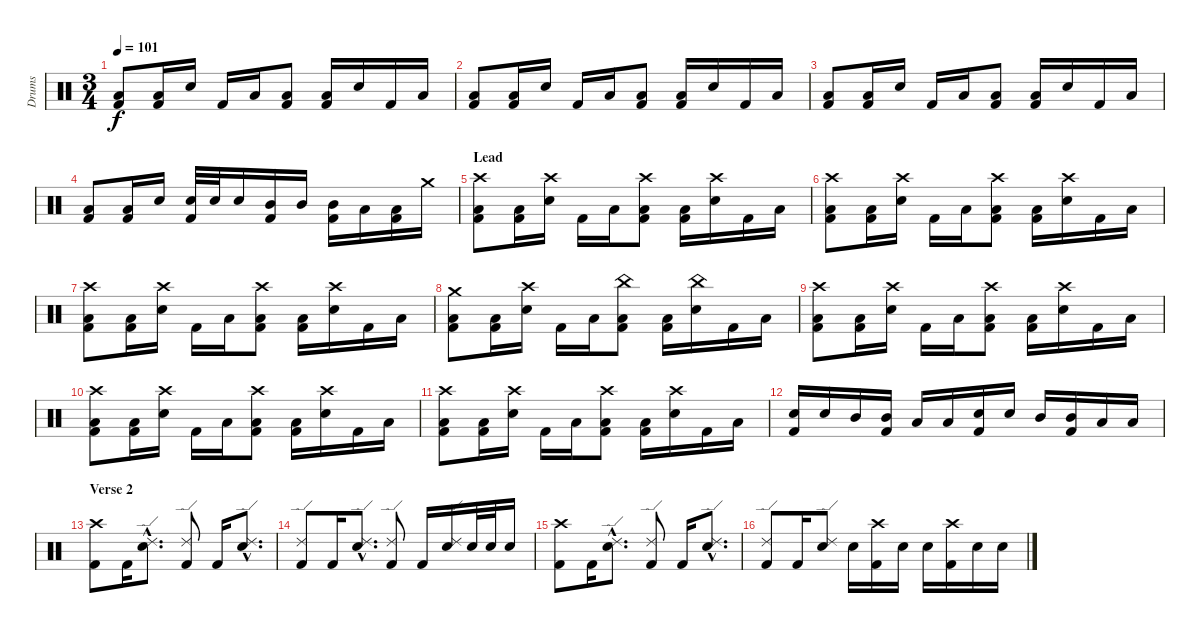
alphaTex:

\track ("Drums" "Drums") {instrument percussion}
\staff {score}
\articulation defaults
\ts (3 4)
\tempo 101
\clef neutral
\ks c
("Low Tom (hit)" "Kick (hit) 2").8{dy f} ("Low Tom (hit)" "Kick (hit) 2").16 "Electric Snare (hit)".16 "Kick (hit) 2".16 "Low Tom (hit)".16 ("Low Tom (hit)" "Kick (hit) 2").8 ("Low Tom (hit)" "Kick (hit) 2").16 "Electric Snare (hit)".16 "Kick (hit) 2".16 "Low Tom (hit)".16 |
("Low Tom (hit)" "Kick (hit) 2").8 ("Low Tom (hit)" "Kick (hit) 2").16 "Electric Snare (hit)".16 "Kick (hit) 2".16 "Low Tom (hit)".16 ("Low Tom (hit)" "Kick (hit) 2").8 ("Low Tom (hit)" "Kick (hit) 2").16 "Electric Snare (hit)".16 "Kick (hit) 2".16 "Low Tom (hit)".16 |
("Low Tom (hit)" "Kick (hit) 2").8 ("Low Tom (hit)" "Kick (hit) 2").16 "Electric Snare (hit)".16 "Kick (hit) 2".16 "Low Tom (hit)".16 ("Low Tom (hit)" "Kick (hit) 2").8 ("Low Tom (hit)" "Kick (hit) 2").16 "Electric Snare (hit)".16 "Kick (hit) 2".16 "Low Tom (hit)".16 |
("Low Tom (hit)" "Kick (hit) 2").8 ("Low Tom (hit)" "Kick (hit) 2").16 "Electric Snare (hit)".16 ("Electric Snare (hit)" "Kick (hit) 2").32 "Electric Snare (hit)".32 "Electric Snare (hit)".16 ("Mid Tom (hit)" "Kick (hit) 2").16 "Mid Tom (hit)".16 ("Mid Tom (hit)" "Kick (hit) 2").16 "Low Tom (hit)".16 ("Low Tom (hit)" "Kick (hit) 2").16 "Crash medium (hit)".16 |
\section ("" "Lead")
("Crash high (hit)" "Low Tom (hit)" "Kick (hit) 2").8 ("Low Tom (hit)" "Kick (hit) 2").16 ("Crash high (hit)" "Electric Snare (hit)").16 "Kick (hit) 2".16 "Low Tom (hit)".16 ("Crash high (hit)" "Low Tom (hit)" "Kick (hit) 2").8 ("Low Tom (hit)" "Kick (hit) 2").16 ("Crash high (hit)" "Electric Snare (hit)").16 "Kick (hit) 2".16 "Low Tom (hit)".16 |
("Crash high (hit)" "Low Tom (hit)" "Kick (hit) 2").8 ("Low Tom (hit)" "Kick (hit) 2").16 ("Crash high (hit)" "Electric Snare (hit)").16 "Kick (hit) 2".16 "Low Tom (hit)".16 ("Crash high (hit)" "Low Tom (hit)" "Kick (hit) 2").8 ("Low Tom (hit)" "Kick (hit) 2").16 ("Crash high (hit)" "Electric Snare (hit)").16 "Kick (hit) 2".16 "Low Tom (hit)".16 |
("Crash high (hit)" "Low Tom (hit)" "Kick (hit) 2").8 ("Low Tom (hit)" "Kick (hit) 2").16 ("Crash high (hit)" "Electric Snare (hit)").16 "Kick (hit) 2".16 "Low Tom (hit)".16 ("Crash high (hit)" "Low Tom (hit)" "Kick (hit) 2").8 ("Low Tom (hit)" "Kick (hit) 2").16 ("Crash high (hit)" "Electric Snare (hit)").16 "Kick (hit) 2".16 "Low Tom (hit)".16 |
("Crash medium (hit)" "Low Tom (hit)" "Kick (hit) 2").8 ("Low Tom (hit)" "Kick (hit) 2").16 ("Crash high (hit)" "Electric Snare (hit)").16 "Kick (hit) 2".16 "Low Tom (hit)".16 ("China (hit)" "Low Tom (hit)" "Kick (hit) 2").8 ("Low Tom (hit)" "Kick (hit) 2").16 ("China (hit)" "Electric Snare (hit)").16 "Kick (hit) 2".16 "Low Tom (hit)".16 |
("Crash high (hit)" "Low Tom (hit)" "Kick (hit) 2").8 ("Low Tom (hit)" "Kick (hit) 2").16 ("Crash high (hit)" "Electric Snare (hit)").16 "Kick (hit) 2".16 "Low Tom (hit)".16 ("Crash high (hit)" "Low Tom (hit)" "Kick (hit) 2").8 ("Low Tom (hit)" "Kick (hit) 2").16 ("Crash high (hit)" "Electric Snare (hit)").16 "Kick (hit) 2".16 "Low Tom (hit)".16 |
("Crash high (hit)" "Low Tom (hit)" "Kick (hit) 2").8 ("Low Tom (hit)" "Kick (hit) 2").16 ("Crash high (hit)" "Electric Snare (hit)").16 "Kick (hit) 2".16 "Low Tom (hit)".16 ("Crash high (hit)" "Low Tom (hit)" "Kick (hit) 2").8 ("Low Tom (hit)" "Kick (hit) 2").16 ("Crash high (hit)" "Electric Snare (hit)").16 "Kick (hit) 2".16 "Low Tom (hit)".16 |
("Crash high (hit)" "Low Tom (hit)" "Kick (hit) 2").8 ("Low Tom (hit)" "Kick (hit) 2").16 ("Crash high (hit)" "Electric Snare (hit)").16 "Kick (hit) 2".16 "Low Tom (hit)".16 ("Crash high (hit)" "Low Tom (hit)" "Kick (hit) 2").8 ("Low Tom (hit)" "Kick (hit) 2").16 ("Crash high (hit)" "Electric Snare (hit)").16 "Kick (hit) 2".16 "Low Tom (hit)".16 |
("Electric Snare (hit)" "Kick (hit) 2").16 "Electric Snare (hit)".16 "Mid Tom (hit)".16 ("Mid Tom (hit)" "Kick (hit) 2").16 "Low Tom (hit)".16 "Low Tom (hit)".16 ("Electric Snare (hit)" "Kick (hit) 2").16 "Electric Snare (hit)".16 "Mid Tom (hit)".16 ("Mid Tom (hit)" "Kick (hit) 2").16 "Low Tom (hit)".16 "Low Tom (hit)".16 |
\section ("" "Verse 2")
("Crash high (hit)" "Kick (hit) 2").8 "Kick (hit) 2".16 ("Electric Snare (hit)"{hac} "Ride (edge) 2"{hac}).8{d} ("Ride (edge) 2" "Kick (hit) 2").8 "Kick (hit) 2".16 ("Electric Snare (hit)"{hac} "Ride (edge) 2"{hac}).8{d} |
("Ride (edge) 2" "Kick (hit) 2").8 "Kick (hit) 2".16 ("Electric Snare (hit)"{hac} "Ride (edge) 2"{hac}).8{d} ("Ride (edge) 2" "Kick (hit) 2").8 "Kick (hit) 2".16 ("Electric Snare (hit)" "Ride (edge) 2").16 "Electric Snare (hit)".32 "Electric Snare (hit)".32 "Electric Snare (hit)".16 |
("Crash high (hit)" "Kick (hit) 2").8 "Kick (hit) 2".16 ("Electric Snare (hit)"{hac} "Ride (edge) 2"{hac}).8{d} ("Ride (edge) 2" "Kick (hit) 2").8 "Kick (hit) 2".16 ("Electric Snare (hit)"{hac} "Ride (edge) 2"{hac}).8{d} |
("Ride (edge) 2" "Kick (hit) 2").8 "Kick (hit) 2".16 ("Electric Snare (hit)" "Ride (edge) 2").8 "Electric Snare (hit)".16 ("Crash high (hit)" "Kick (hit) 2").16 "Electric Snare (hit)".16 "Electric Snare (hit)".16 ("Crash high (hit)" "Kick (hit) 2").16 "Electric Snare (hit)".16 "Electric Snare (hit)".16
